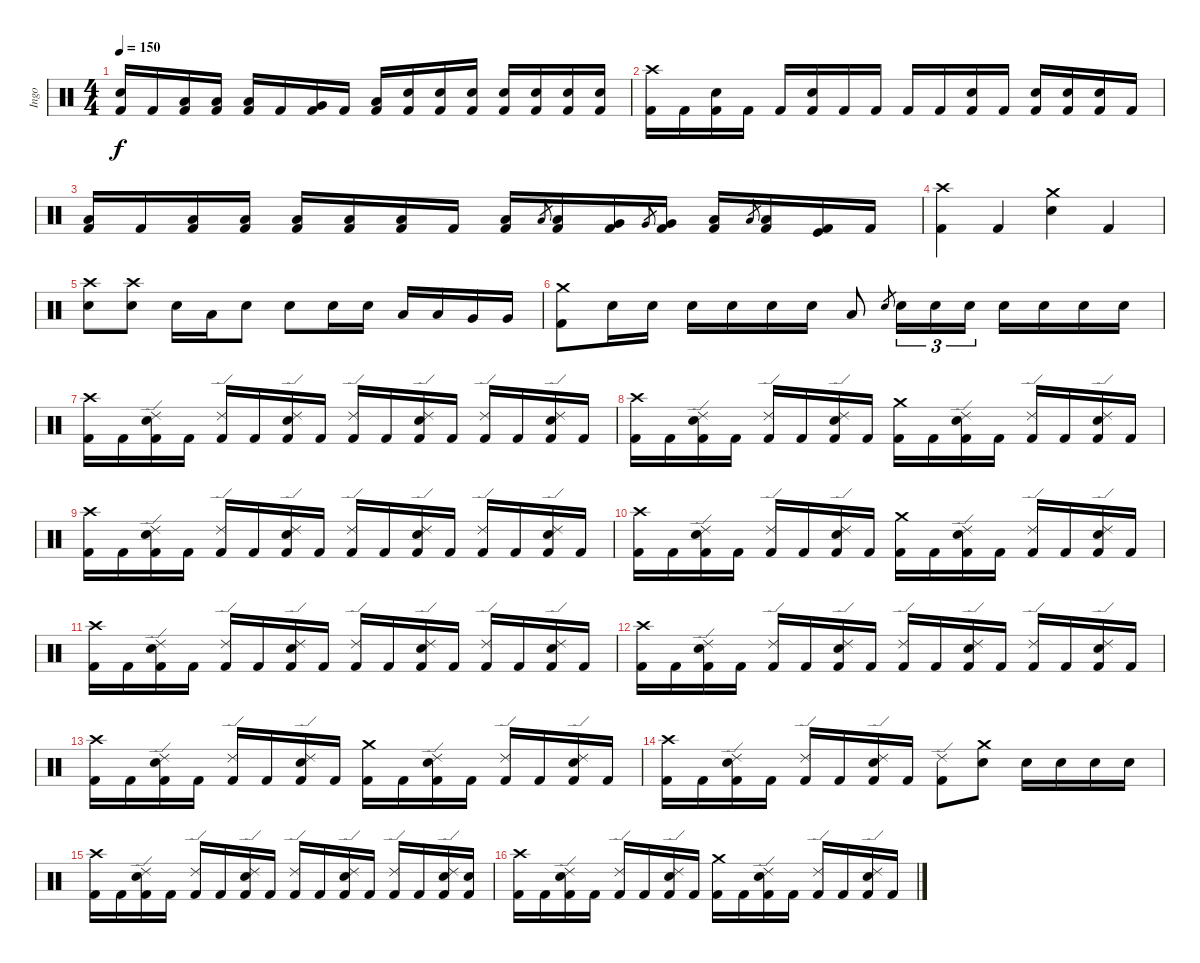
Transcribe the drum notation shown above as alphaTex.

\track ("Ingo" "Ingo") {instrument percussion}
\staff {score}
\articulation defaults
\ts (4 4)
\tempo 150
\clef neutral
\ks c
("Electric Snare (hit)" "Kick (hit) 2").16{dy f} "Kick (hit) 2".16 ("Low Tom (hit)" "Kick (hit) 2").16 ("Low Tom (hit)" "Kick (hit) 2").16 ("Low Tom (hit)" "Kick (hit) 2").16 "Kick (hit) 2".16 ("Very Low Tom (hit)" "Kick (hit) 2").16 "Kick (hit) 2".16 ("Low Tom (hit)" "Kick (hit) 2").16 ("Electric Snare (hit)" "Kick (hit) 2").16 ("Electric Snare (hit)" "Kick (hit) 2").16 ("Electric Snare (hit)" "Kick (hit) 2").16 ("Electric Snare (hit)" "Kick (hit) 2").16 ("Electric Snare (hit)" "Kick (hit) 2").16 ("Electric Snare (hit)" "Kick (hit) 2").16 ("Electric Snare (hit)" "Kick (hit) 2").16 |
("Crash high (hit)" "Kick (hit) 2").16 "Kick (hit) 2".16 ("Electric Snare (hit)" "Kick (hit) 2").16 "Kick (hit) 2".16 "Kick (hit) 2".16 ("Electric Snare (hit)" "Kick (hit) 2").16 "Kick (hit) 2".16 "Kick (hit) 2".16 "Kick (hit) 2".16 "Kick (hit) 2".16 ("Electric Snare (hit)" "Kick (hit) 2").16 "Kick (hit) 2".16 ("Electric Snare (hit)" "Kick (hit) 2").16 ("Electric Snare (hit)" "Kick (hit) 2").16 ("Electric Snare (hit)" "Kick (hit) 2").16 "Kick (hit) 2".16 |
("Low Tom (hit)" "Kick (hit) 2").16 "Kick (hit) 2".16 ("Low Tom (hit)" "Kick (hit) 2").16 ("Low Tom (hit)" "Kick (hit) 2").16 ("Low Tom (hit)" "Kick (hit) 2").16 ("Low Tom (hit)" "Kick (hit) 2").16 ("Low Tom (hit)" "Kick (hit) 2").16 "Kick (hit) 2".16 ("Low Tom (hit)" "Kick (hit) 2").16 "Low Tom (hit)".8{gr} ("Low Tom (hit)" "Kick (hit) 2").16 ("Very Low Tom (hit)" "Kick (hit) 2").16 "Very Low Tom (hit)".8{gr} ("Very Low Tom (hit)" "Kick (hit) 2").16 ("Low Floor Tom (hit)" "Kick (hit) 2").16 "Low Floor Tom (hit)".8{gr} ("Low Floor Tom (hit)" "Kick (hit) 2").16 ("Kick (hit)" "Kick (hit) 2").16 "Kick (hit) 2".16 |
("Crash high (hit)" "Kick (hit) 2").4 "Kick (hit) 2".4 ("Crash medium (hit)" "Electric Snare (hit)").4 "Kick (hit) 2".4 |
("Crash high (hit)" "Electric Snare (hit)").8 ("Crash high (hit)" "Electric Snare (hit)").8 "Electric Snare (hit)".16 "Low Tom (hit)".16 "Electric Snare (hit)".8 "Electric Snare (hit)".8 "Electric Snare (hit)".16 "Electric Snare (hit)".16 "Low Tom (hit)".16 "Low Tom (hit)".16 "Very Low Tom (hit)".16 "Very Low Tom (hit)".16 |
("Crash medium (hit)" "Kick (hit) 2").8 "Electric Snare (hit)".16 "Electric Snare (hit)".16 "Electric Snare (hit)".16 "Electric Snare (hit)".16 "Electric Snare (hit)".16 "Electric Snare (hit)".16 "Low Tom (hit)".8 "Electric Snare (hit)".8{gr} "Electric Snare (hit)".16{tu (3 2)} "Electric Snare (hit)".16{tu (3 2)} "Electric Snare (hit)".16{tu (3 2)} "Electric Snare (hit)".16 "Electric Snare (hit)".16 "Electric Snare (hit)".16 "Electric Snare (hit)".16 |
("Crash high (hit)" "Kick (hit) 2").16 "Kick (hit) 2".16 ("Ride (edge) 2" "Electric Snare (hit)" "Kick (hit) 2").16 "Kick (hit) 2".16 ("Ride (edge) 2" "Kick (hit) 2").16 "Kick (hit) 2".16 ("Ride (edge) 2" "Electric Snare (hit)" "Kick (hit) 2").16 "Kick (hit) 2".16 ("Ride (edge) 2" "Kick (hit) 2").16 "Kick (hit) 2".16 ("Ride (edge) 2" "Electric Snare (hit)" "Kick (hit) 2").16 "Kick (hit) 2".16 ("Ride (edge) 2" "Kick (hit) 2").16 "Kick (hit) 2".16 ("Ride (edge) 2" "Electric Snare (hit)" "Kick (hit) 2").16 "Kick (hit) 2".16 |
("Crash high (hit)" "Kick (hit) 2").16 "Kick (hit) 2".16 ("Ride (edge) 2" "Electric Snare (hit)" "Kick (hit) 2").16 "Kick (hit) 2".16 ("Ride (edge) 2" "Kick (hit) 2").16 "Kick (hit) 2".16 ("Ride (edge) 2" "Electric Snare (hit)" "Kick (hit) 2").16 "Kick (hit) 2".16 ("Crash medium (hit)" "Kick (hit) 2").16 "Kick (hit) 2".16 ("Ride (edge) 2" "Electric Snare (hit)" "Kick (hit) 2").16 "Kick (hit) 2".16 ("Ride (edge) 2" "Kick (hit) 2").16 "Kick (hit) 2".16 ("Ride (edge) 2" "Electric Snare (hit)" "Kick (hit) 2").16 "Kick (hit) 2".16 |
("Crash high (hit)" "Kick (hit) 2").16 "Kick (hit) 2".16 ("Ride (edge) 2" "Electric Snare (hit)" "Kick (hit) 2").16 "Kick (hit) 2".16 ("Ride (edge) 2" "Kick (hit) 2").16 "Kick (hit) 2".16 ("Ride (edge) 2" "Electric Snare (hit)" "Kick (hit) 2").16 "Kick (hit) 2".16 ("Ride (edge) 2" "Kick (hit) 2").16 "Kick (hit) 2".16 ("Ride (edge) 2" "Electric Snare (hit)" "Kick (hit) 2").16 "Kick (hit) 2".16 ("Ride (edge) 2" "Kick (hit) 2").16 "Kick (hit) 2".16 ("Ride (edge) 2" "Electric Snare (hit)" "Kick (hit) 2").16 "Kick (hit) 2".16 |
("Crash high (hit)" "Kick (hit) 2").16 "Kick (hit) 2".16 ("Ride (edge) 2" "Electric Snare (hit)" "Kick (hit) 2").16 "Kick (hit) 2".16 ("Ride (edge) 2" "Kick (hit) 2").16 "Kick (hit) 2".16 ("Ride (edge) 2" "Electric Snare (hit)" "Kick (hit) 2").16 "Kick (hit) 2".16 ("Crash medium (hit)" "Kick (hit) 2").16 "Kick (hit) 2".16 ("Ride (edge) 2" "Electric Snare (hit)" "Kick (hit) 2").16 "Kick (hit) 2".16 ("Ride (edge) 2" "Kick (hit) 2").16 "Kick (hit) 2".16 ("Ride (edge) 2" "Electric Snare (hit)" "Kick (hit) 2").16 "Kick (hit) 2".16 |
("Crash high (hit)" "Kick (hit) 2").16 "Kick (hit) 2".16 ("Ride (edge) 2" "Electric Snare (hit)" "Kick (hit) 2").16 "Kick (hit) 2".16 ("Ride (edge) 2" "Kick (hit) 2").16 "Kick (hit) 2".16 ("Ride (edge) 2" "Electric Snare (hit)" "Kick (hit) 2").16 "Kick (hit) 2".16 ("Ride (edge) 2" "Kick (hit) 2").16 "Kick (hit) 2".16 ("Ride (edge) 2" "Electric Snare (hit)" "Kick (hit) 2").16 "Kick (hit) 2".16 ("Ride (edge) 2" "Kick (hit) 2").16 "Kick (hit) 2".16 ("Ride (edge) 2" "Electric Snare (hit)" "Kick (hit) 2").16 "Kick (hit) 2".16 |
("Crash high (hit)" "Kick (hit) 2").16 "Kick (hit) 2".16 ("Ride (edge) 2" "Electric Snare (hit)" "Kick (hit) 2").16 "Kick (hit) 2".16 ("Ride (edge) 2" "Kick (hit) 2").16 "Kick (hit) 2".16 ("Ride (edge) 2" "Electric Snare (hit)" "Kick (hit) 2").16 "Kick (hit) 2".16 ("Ride (edge) 2" "Kick (hit) 2").16 "Kick (hit) 2".16 ("Ride (edge) 2" "Electric Snare (hit)" "Kick (hit) 2").16 "Kick (hit) 2".16 ("Ride (edge) 2" "Kick (hit) 2").16 "Kick (hit) 2".16 ("Ride (edge) 2" "Electric Snare (hit)" "Kick (hit) 2").16 "Kick (hit) 2".16 |
("Crash high (hit)" "Kick (hit) 2").16 "Kick (hit) 2".16 ("Ride (edge) 2" "Electric Snare (hit)" "Kick (hit) 2").16 "Kick (hit) 2".16 ("Ride (edge) 2" "Kick (hit) 2").16 "Kick (hit) 2".16 ("Ride (edge) 2" "Electric Snare (hit)" "Kick (hit) 2").16 "Kick (hit) 2".16 ("Crash medium (hit)" "Kick (hit) 2").16 "Kick (hit) 2".16 ("Ride (edge) 2" "Electric Snare (hit)" "Kick (hit) 2").16 "Kick (hit) 2".16 ("Ride (edge) 2" "Kick (hit) 2").16 "Kick (hit) 2".16 ("Ride (edge) 2" "Electric Snare (hit)" "Kick (hit) 2").16 "Kick (hit) 2".16 |
("Crash high (hit)" "Kick (hit) 2").16 "Kick (hit) 2".16 ("Ride (edge) 2" "Electric Snare (hit)" "Kick (hit) 2").16 "Kick (hit) 2".16 ("Ride (edge) 2" "Kick (hit) 2").16 "Kick (hit) 2".16 ("Ride (edge) 2" "Electric Snare (hit)" "Kick (hit) 2").16 "Kick (hit) 2".16 ("Ride (edge) 2" "Kick (hit) 2").8 ("Crash medium (hit)" "Electric Snare (hit)").8 "Electric Snare (hit)".16 "Electric Snare (hit)".16 "Electric Snare (hit)".16 "Electric Snare (hit)".16 |
("Crash high (hit)" "Kick (hit) 2").16 "Kick (hit) 2".16 ("Ride (edge) 2" "Electric Snare (hit)" "Kick (hit) 2").16 "Kick (hit) 2".16 ("Ride (edge) 2" "Kick (hit) 2").16 "Kick (hit) 2".16 ("Ride (edge) 2" "Electric Snare (hit)" "Kick (hit) 2").16 "Kick (hit) 2".16 ("Ride (edge) 2" "Kick (hit) 2").16 "Kick (hit) 2".16 ("Ride (edge) 2" "Electric Snare (hit)" "Kick (hit) 2").16 "Kick (hit) 2".16 ("Ride (edge) 2" "Kick (hit) 2").16 "Kick (hit) 2".16 ("Ride (edge) 2" "Electric Snare (hit)" "Kick (hit) 2").16 ("Electric Snare (hit)" "Kick (hit) 2").16 |
("Crash high (hit)" "Kick (hit) 2").16 "Kick (hit) 2".16 ("Ride (edge) 2" "Electric Snare (hit)" "Kick (hit) 2").16 "Kick (hit) 2".16 ("Ride (edge) 2" "Kick (hit) 2").16 "Kick (hit) 2".16 ("Ride (edge) 2" "Electric Snare (hit)" "Kick (hit) 2").16 "Kick (hit) 2".16 ("Crash medium (hit)" "Kick (hit) 2").16 "Kick (hit) 2".16 ("Ride (edge) 2" "Electric Snare (hit)" "Kick (hit) 2").16 "Kick (hit) 2".16 ("Ride (edge) 2" "Kick (hit) 2").16 "Kick (hit) 2".16 ("Ride (edge) 2" "Electric Snare (hit)" "Kick (hit) 2").16 "Kick (hit) 2".16
